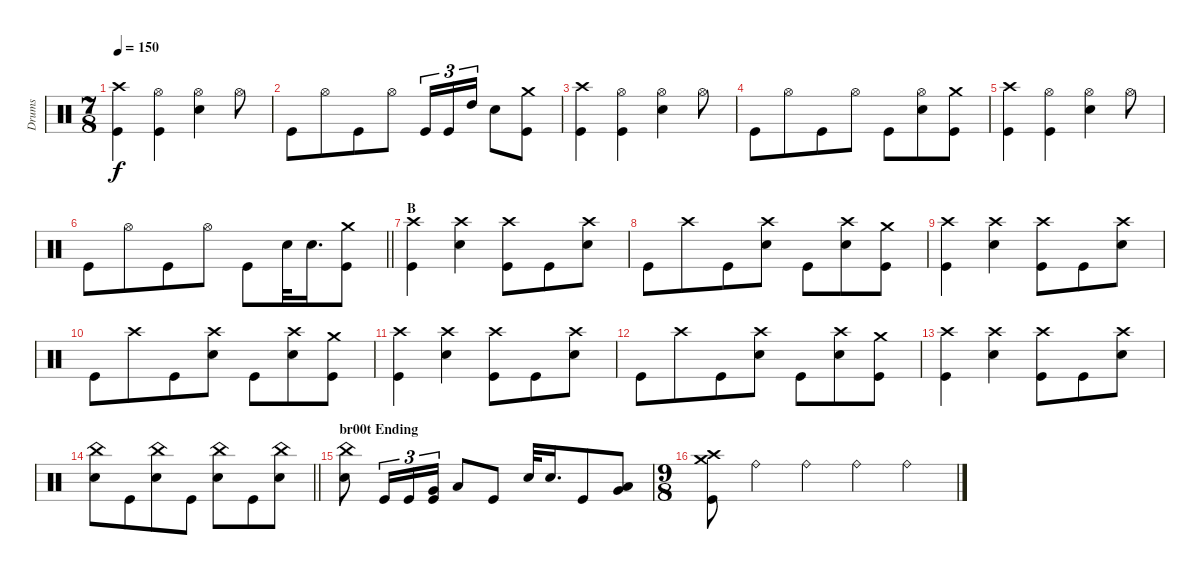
\track ("Drums" "Drums") {instrument percussion}
\staff {score}
\articulation defaults
\ts (7 8)
\tempo 150
\clef neutral
\ks c
("Crash high (hit)" "Kick (hit)").4{dy f} ("Hi-Hat (open)" "Kick (hit)").4 ("Hi-Hat (open)" "Electric Snare (hit)").4 "Hi-Hat (open)".8 |
"Kick (hit)".8 "Hi-Hat (open)".8 "Kick (hit)".8 "Hi-Hat (open)".8 "Kick (hit)".16{tu (3 2)} "Kick (hit)".16{tu (3 2)} "High Tom (hit)".16{tu (3 2)} "Electric Snare (hit)".8 ("Crash medium (hit)" "Kick (hit)").8 |
("Crash high (hit)" "Kick (hit)").4 ("Hi-Hat (open)" "Kick (hit)").4 ("Hi-Hat (open)" "Electric Snare (hit)").4 "Hi-Hat (open)".8 |
"Kick (hit)".8 "Hi-Hat (open)".8 "Kick (hit)".8 "Hi-Hat (open)".8 "Kick (hit)".8 ("Hi-Hat (open)" "Electric Snare (hit)").8 ("Crash medium (hit)" "Kick (hit)").8 |
("Crash high (hit)" "Kick (hit)").4 ("Hi-Hat (open)" "Kick (hit)").4 ("Hi-Hat (open)" "Electric Snare (hit)").4 "Hi-Hat (open)".8 |
\barLineRight lightlight "Kick (hit)".8 "Hi-Hat (open)".8 "Kick (hit)".8 "Hi-Hat (open)".8 "Kick (hit)".8 "Electric Snare (hit)".32 "Electric Snare (hit)".16{d}
("Crash medium (hit)" "Kick (hit)").8 |
\section ("" "B")
("Crash high (hit)" "Kick (hit)").4 ("Crash high (hit)" "Electric Snare (hit)").4 ("Crash high (hit)" "Kick (hit)").8 "Kick (hit)".8 ("Crash high (hit)" "Electric Snare (hit)").8 |
"Kick (hit)".8 "Crash high (hit)".8 "Kick (hit)".8 ("Crash high (hit)" "Electric Snare (hit)").8 "Kick (hit)".8 ("Crash high (hit)" "Electric Snare (hit)").8 ("Crash medium (hit)" "Kick (hit)").8 |
("Crash high (hit)" "Kick (hit)").4 ("Crash high (hit)" "Electric Snare (hit)").4 ("Crash high (hit)" "Kick (hit)").8 "Kick (hit)".8 ("Crash high (hit)" "Electric Snare (hit)").8 |
"Kick (hit)".8 "Crash high (hit)".8 "Kick (hit)".8 ("Crash high (hit)" "Electric Snare (hit)").8 "Kick (hit)".8 ("Crash high (hit)" "Electric Snare (hit)").8 ("Crash medium (hit)" "Kick (hit)").8 |
("Crash high (hit)" "Kick (hit)").4 ("Crash high (hit)" "Electric Snare (hit)").4 ("Crash high (hit)" "Kick (hit)").8 "Kick (hit)".8 ("Crash high (hit)" "Electric Snare (hit)").8 |
"Kick (hit)".8 "Crash high (hit)".8 "Kick (hit)".8 ("Crash high (hit)" "Electric Snare (hit)").8 "Kick (hit)".8 ("Crash high (hit)" "Electric Snare (hit)").8 ("Crash medium (hit)" "Kick (hit)").8 |
("Crash high (hit)" "Kick (hit)").4 ("Crash high (hit)" "Electric Snare (hit)").4 ("Crash high (hit)" "Kick (hit)").8 "Kick (hit)".8 ("Crash high (hit)" "Electric Snare (hit)").8 |
\barLineRight lightlight
("China (hit)" "Electric Snare (hit)").8 "Kick (hit)".8 ("China (hit)" "Electric Snare (hit)").8 "Kick (hit)".8 ("China (hit)" "Electric Snare (hit)").8 "Kick (hit)".8 ("China (hit)" "Electric Snare (hit)").8 |
\section ("" "br00t Ending")
("China (hit)" "Electric Snare (hit)").8 "Kick (hit)".16{tu (3 2)} "Kick (hit)".16{tu (3 2)} ("Very Low Tom (hit)" "Kick (hit)").16{tu (3 2)} "Low Floor Tom (hit)".8 "Kick (hit)".8 "Electric Snare (hit)".32 "Electric Snare (hit)".16{d} "Kick (hit)".8 ("Very Low Tom (hit)" "Low Floor Tom (hit)").8 |
\ts (9 8)
("Crash medium (hit)" "Crash high (hit)" "Kick (hit)").8 "Ride (bell)".4 "Ride (bell)".4 "Ride (bell)".4 "Ride (bell)".4
